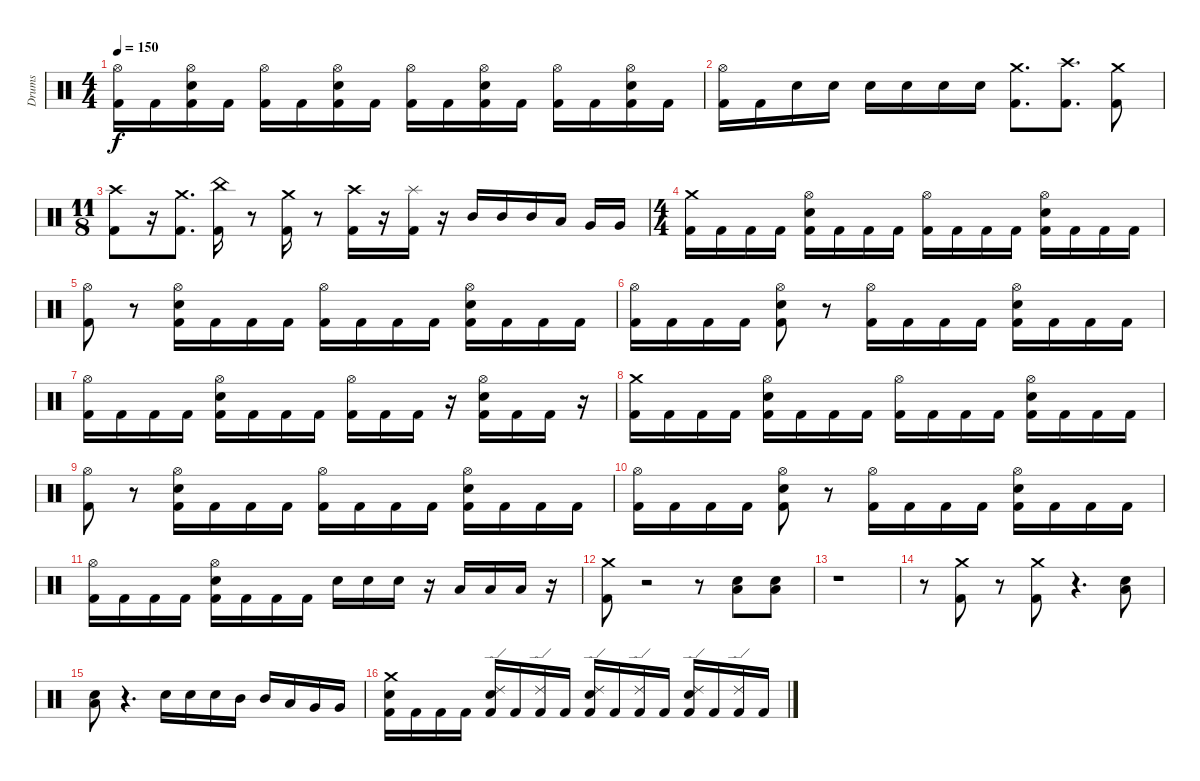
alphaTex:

\track ("Drums" "Drums") {instrument percussion}
\staff {score}
\articulation defaults
\ts (4 4)
\tempo 150
\clef neutral
\ks c
("Hi-Hat (open)" "Kick (hit) 2").16{dy f} "Kick (hit) 2".16 ("Hi-Hat (open)" "Electric Snare (hit)" "Kick (hit) 2").16 "Kick (hit) 2".16 ("Hi-Hat (open)" "Kick (hit) 2").16 "Kick (hit) 2".16 ("Hi-Hat (open)" "Electric Snare (hit)" "Kick (hit) 2").16 "Kick (hit) 2".16 ("Hi-Hat (open)" "Kick (hit) 2").16 "Kick (hit) 2".16 ("Hi-Hat (open)" "Electric Snare (hit)" "Kick (hit) 2").16 "Kick (hit) 2".16 ("Hi-Hat (open)" "Kick (hit) 2").16 "Kick (hit) 2".16 ("Hi-Hat (open)" "Electric Snare (hit)" "Kick (hit) 2").16 "Kick (hit) 2".16 |
("Hi-Hat (open)" "Kick (hit) 2").16 "Kick (hit) 2".16 "Electric Snare (hit)".16 "Electric Snare (hit)".16 "Electric Snare (hit)".16 "Electric Snare (hit)".16 "Electric Snare (hit)".16 "Electric Snare (hit)".16 ("Crash medium (hit)" "Kick (hit) 2").8{d} ("Crash high (hit)" "Kick (hit) 2").8{d} ("Crash medium (hit)" "Kick (hit) 2").8 |
\ts (11 8)
("Crash high (hit)" "Kick (hit) 2").8 r.16 ("Crash medium (hit)" "Kick (hit) 2").8{d} ("China (hit)" "Kick (hit) 2").16 r.8 ("Crash medium (hit)" "Kick (hit) 2").16 r.8 ("Crash high (hit)" "Kick (hit) 2").16 r.16 ("Splash (hit)" "Kick (hit) 2").16 r.16 "Mid Tom (hit)".16 "Mid Tom (hit)".16 "Mid Tom (hit)".16 "Low Tom (hit)".16 "Very Low Tom (hit)".16 "Very Low Tom (hit)".16 |
\ts (4 4)
("Crash medium (hit)" "Kick (hit) 2").16 "Kick (hit) 2".16 "Kick (hit) 2".16 "Kick (hit) 2".16 ("Hi-Hat (open)" "Electric Snare (hit)" "Kick (hit) 2").16 "Kick (hit) 2".16 "Kick (hit) 2".16 "Kick (hit) 2".16 ("Hi-Hat (open)" "Kick (hit) 2").16 "Kick (hit) 2".16 "Kick (hit) 2".16 "Kick (hit) 2".16 ("Hi-Hat (open)" "Electric Snare (hit)" "Kick (hit) 2").16 "Kick (hit) 2".16 "Kick (hit) 2".16 "Kick (hit) 2".16 |
("Hi-Hat (open)" "Kick (hit) 2").8 r.8 ("Electric Snare (hit)" "Hi-Hat (open)" "Kick (hit) 2").16 "Kick (hit) 2".16 "Kick (hit) 2".16 "Kick (hit) 2".16 ("Hi-Hat (open)" "Kick (hit) 2").16 "Kick (hit) 2".16 "Kick (hit) 2".16 "Kick (hit) 2".16 ("Electric Snare (hit)" "Hi-Hat (open)" "Kick (hit) 2").16 "Kick (hit) 2".16 "Kick (hit) 2".16 "Kick (hit) 2".16 |
("Hi-Hat (open)" "Kick (hit) 2").16 "Kick (hit) 2".16 "Kick (hit) 2".16 "Kick (hit) 2".16 ("Electric Snare (hit)" "Hi-Hat (open)" "Kick (hit) 2").8 r.8 ("Hi-Hat (open)" "Kick (hit) 2").16 "Kick (hit) 2".16 "Kick (hit) 2".16 "Kick (hit) 2".16 ("Hi-Hat (open)" "Electric Snare (hit)" "Kick (hit) 2").16 "Kick (hit) 2".16 "Kick (hit) 2".16 "Kick (hit) 2".16 |
("Hi-Hat (open)" "Kick (hit) 2").16 "Kick (hit) 2".16 "Kick (hit) 2".16 "Kick (hit) 2".16 ("Hi-Hat (open)" "Electric Snare (hit)" "Kick (hit) 2").16 "Kick (hit) 2".16 "Kick (hit) 2".16 "Kick (hit) 2".16 ("Hi-Hat (open)" "Kick (hit) 2").16 "Kick (hit) 2".16 "Kick (hit) 2".16 r.16 ("Electric Snare (hit)" "Hi-Hat (open)" "Kick (hit) 2").16 "Kick (hit) 2".16 "Kick (hit) 2".16 r.16 |
("Crash medium (hit)" "Kick (hit) 2").16 "Kick (hit) 2".16 "Kick (hit) 2".16 "Kick (hit) 2".16 ("Hi-Hat (open)" "Electric Snare (hit)" "Kick (hit) 2").16 "Kick (hit) 2".16 "Kick (hit) 2".16 "Kick (hit) 2".16 ("Hi-Hat (open)" "Kick (hit) 2").16 "Kick (hit) 2".16 "Kick (hit) 2".16 "Kick (hit) 2".16 ("Hi-Hat (open)" "Electric Snare (hit)" "Kick (hit) 2").16 "Kick (hit) 2".16 "Kick (hit) 2".16 "Kick (hit) 2".16 |
("Hi-Hat (open)" "Kick (hit) 2").8 r.8 ("Electric Snare (hit)" "Hi-Hat (open)" "Kick (hit) 2").16 "Kick (hit) 2".16 "Kick (hit) 2".16 "Kick (hit) 2".16 ("Hi-Hat (open)" "Kick (hit) 2").16 "Kick (hit) 2".16 "Kick (hit) 2".16 "Kick (hit) 2".16 ("Electric Snare (hit)" "Hi-Hat (open)" "Kick (hit) 2").16 "Kick (hit) 2".16 "Kick (hit) 2".16 "Kick (hit) 2".16 |
("Hi-Hat (open)" "Kick (hit) 2").16 "Kick (hit) 2".16 "Kick (hit) 2".16 "Kick (hit) 2".16 ("Electric Snare (hit)" "Hi-Hat (open)" "Kick (hit) 2").8 r.8 ("Hi-Hat (open)" "Kick (hit) 2").16 "Kick (hit) 2".16 "Kick (hit) 2".16 "Kick (hit) 2".16 ("Hi-Hat (open)" "Electric Snare (hit)" "Kick (hit) 2").16 "Kick (hit) 2".16 "Kick (hit) 2".16 "Kick (hit) 2".16 |
("Hi-Hat (open)" "Kick (hit) 2").16 "Kick (hit) 2".16 "Kick (hit) 2".16 "Kick (hit) 2".16 ("Hi-Hat (open)" "Electric Snare (hit)" "Kick (hit) 2").16 "Kick (hit) 2".16 "Kick (hit) 2".16 "Kick (hit) 2".16 "Electric Snare (hit)".16 "Electric Snare (hit)".16 "Electric Snare (hit)".16 r.16 "Low Tom (hit)".16 "Low Tom (hit)".16 "Low Tom (hit)".16 r.16 |
("Crash medium (hit)" "Kick (hit) 2").8 r.2 r.8 ("Low Tom (hit)" "Electric Snare (hit)").8 ("Low Tom (hit)" "Electric Snare (hit)").8 |
r.1 |
r.8 ("Crash medium (hit)" "Kick (hit) 2").8 r.8 ("Crash medium (hit)" "Kick (hit) 2").8 r.4{d} ("Low Tom (hit)" "Electric Snare (hit)").8 |
("Low Tom (hit)" "Electric Snare (hit)").8 r.4{d} "Electric Snare (hit)".16 "Electric Snare (hit)".16 "Electric Snare (hit)".16 "Mid Tom (hit)".16 "Mid Tom (hit)".16 "Low Tom (hit)".16 "Very Low Tom (hit)".16 "Very Low Tom (hit)".16 |
("Crash medium (hit)" "Electric Snare (hit)" "Kick (hit) 2").16 "Kick (hit) 2".16 "Kick (hit) 2".16 "Kick (hit) 2".16 ("Ride (edge) 2" "Electric Snare (hit)" "Kick (hit) 2").16 "Kick (hit) 2".16 ("Ride (edge) 2" "Kick (hit) 2").16 "Kick (hit) 2".16 ("Ride (edge) 2" "Electric Snare (hit)" "Kick (hit) 2").16 "Kick (hit) 2".16 ("Ride (edge) 2" "Kick (hit) 2").16 "Kick (hit) 2".16 ("Ride (edge) 2" "Electric Snare (hit)" "Kick (hit) 2").16 "Kick (hit) 2".16 ("Ride (edge) 2" "Kick (hit) 2").16 "Kick (hit) 2".16
